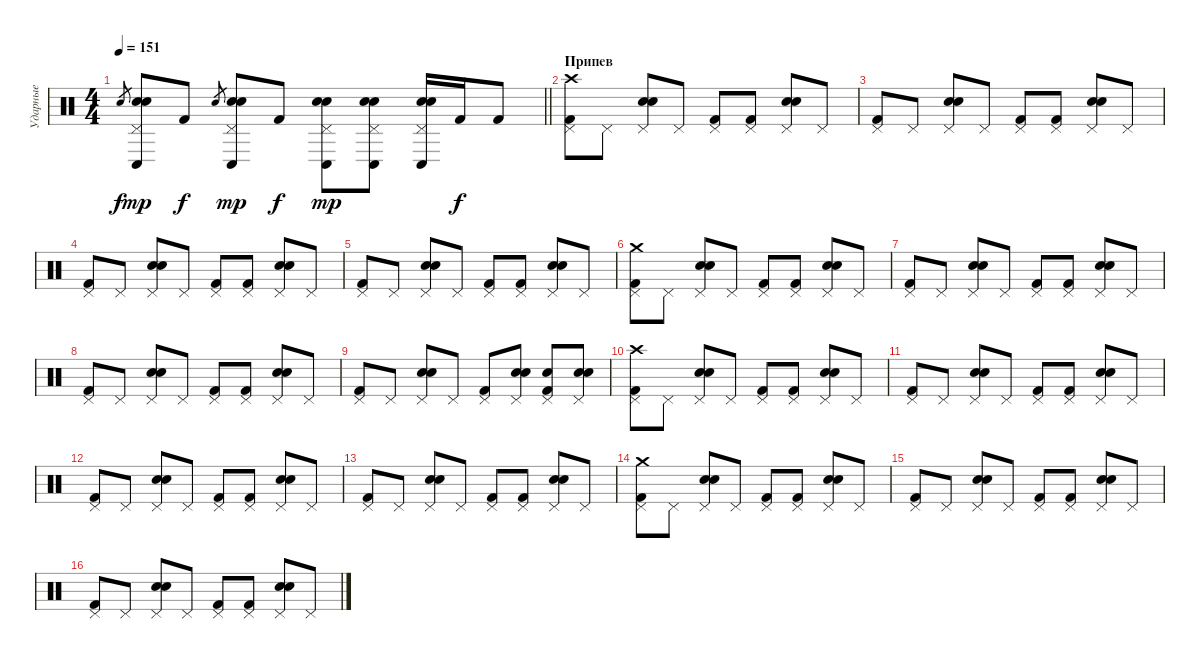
\track ("Ударные" "Ударные") {instrument percussion}
\staff {score}
\articulation defaults
\ts (4 4)
\tempo 151
\clef neutral
\barLineRight lightlight
\ks c "Electric Snare (hit)".8{gr dy f}
("Pedal Hi-Hat (hit)" "Conga low (hit)" "Electric Snare (hit)" "Snare (hit) 2").8{dy mp} "Kick (hit) 2".8{dy f} "Electric Snare (hit)".8{gr} ("Pedal Hi-Hat (hit)" "Conga low (hit)" "Electric Snare (hit)" "Snare (hit) 2").8{dy mp} "Kick (hit) 2".8{dy f} ("Pedal Hi-Hat (hit)" "Conga low (hit)" "Electric Snare (hit)" "Snare (hit) 2").8{dy mp} ("Pedal Hi-Hat (hit)" "Conga low (hit)" "Electric Snare (hit)" "Snare (hit) 2").8 ("Pedal Hi-Hat (hit)" "Conga low (hit)" "Electric Snare (hit)" "Snare (hit) 2").16 "Kick (hit) 2".16{dy f} "Kick (hit) 2".8 |
\section ("" "Припев")
("Pedal Hi-Hat (hit)" "Crash high (hit)" "Kick (hit) 2").8 "Pedal Hi-Hat (hit)".8 ("Pedal Hi-Hat (hit)" "Electric Snare (hit)" "Snare (hit) 2").8 "Pedal Hi-Hat (hit)".8 ("Pedal Hi-Hat (hit)" "Kick (hit) 2").8 ("Pedal Hi-Hat (hit)" "Kick (hit) 2").8 ("Pedal Hi-Hat (hit)" "Electric Snare (hit)" "Snare (hit) 2").8 "Pedal Hi-Hat (hit)".8 |
("Pedal Hi-Hat (hit)" "Kick (hit) 2").8 "Pedal Hi-Hat (hit)".8 ("Pedal Hi-Hat (hit)" "Electric Snare (hit)" "Snare (hit) 2").8 "Pedal Hi-Hat (hit)".8 ("Pedal Hi-Hat (hit)" "Kick (hit) 2").8 ("Pedal Hi-Hat (hit)" "Kick (hit) 2").8 ("Pedal Hi-Hat (hit)" "Electric Snare (hit)" "Snare (hit) 2").8 "Pedal Hi-Hat (hit)".8 |
("Pedal Hi-Hat (hit)" "Kick (hit) 2").8 "Pedal Hi-Hat (hit)".8 ("Pedal Hi-Hat (hit)" "Electric Snare (hit)" "Snare (hit) 2").8 "Pedal Hi-Hat (hit)".8 ("Pedal Hi-Hat (hit)" "Kick (hit) 2").8 ("Pedal Hi-Hat (hit)" "Kick (hit) 2").8 ("Pedal Hi-Hat (hit)" "Electric Snare (hit)" "Snare (hit) 2").8 "Pedal Hi-Hat (hit)".8 |
("Pedal Hi-Hat (hit)" "Kick (hit) 2").8 "Pedal Hi-Hat (hit)".8 ("Pedal Hi-Hat (hit)" "Electric Snare (hit)" "Snare (hit) 2").8 "Pedal Hi-Hat (hit)".8 ("Pedal Hi-Hat (hit)" "Kick (hit) 2").8 ("Pedal Hi-Hat (hit)" "Kick (hit) 2").8 ("Pedal Hi-Hat (hit)" "Electric Snare (hit)" "Snare (hit) 2").8 "Pedal Hi-Hat (hit)".8 |
("Pedal Hi-Hat (hit)" "Crash medium (hit)" "Kick (hit) 2").8 "Pedal Hi-Hat (hit)".8 ("Pedal Hi-Hat (hit)" "Electric Snare (hit)" "Snare (hit) 2").8 "Pedal Hi-Hat (hit)".8 ("Pedal Hi-Hat (hit)" "Kick (hit) 2").8 ("Pedal Hi-Hat (hit)" "Kick (hit) 2").8 ("Pedal Hi-Hat (hit)" "Electric Snare (hit)" "Snare (hit) 2").8 "Pedal Hi-Hat (hit)".8 |
("Pedal Hi-Hat (hit)" "Kick (hit) 2").8 "Pedal Hi-Hat (hit)".8 ("Pedal Hi-Hat (hit)" "Electric Snare (hit)" "Snare (hit) 2").8 "Pedal Hi-Hat (hit)".8 ("Pedal Hi-Hat (hit)" "Kick (hit) 2").8 ("Pedal Hi-Hat (hit)" "Kick (hit) 2").8 ("Pedal Hi-Hat (hit)" "Electric Snare (hit)" "Snare (hit) 2").8 "Pedal Hi-Hat (hit)".8 |
("Pedal Hi-Hat (hit)" "Kick (hit) 2").8 "Pedal Hi-Hat (hit)".8 ("Pedal Hi-Hat (hit)" "Electric Snare (hit)" "Snare (hit) 2").8 "Pedal Hi-Hat (hit)".8 ("Pedal Hi-Hat (hit)" "Kick (hit) 2").8 ("Pedal Hi-Hat (hit)" "Kick (hit) 2").8 ("Pedal Hi-Hat (hit)" "Electric Snare (hit)" "Snare (hit) 2").8 "Pedal Hi-Hat (hit)".8 |
("Pedal Hi-Hat (hit)" "Kick (hit) 2").8 "Pedal Hi-Hat (hit)".8 ("Pedal Hi-Hat (hit)" "Electric Snare (hit)" "Snare (hit) 2").8 "Pedal Hi-Hat (hit)".8 ("Pedal Hi-Hat (hit)" "Kick (hit) 2").8 ("Pedal Hi-Hat (hit)" "Electric Snare (hit)" "Snare (hit) 2").8 ("Pedal Hi-Hat (hit)" "Electric Snare (hit)" "Kick (hit) 2").8 ("Pedal Hi-Hat (hit)" "Electric Snare (hit)" "Snare (hit) 2").8 |
("Pedal Hi-Hat (hit)" "Crash high (hit)" "Kick (hit) 2").8 "Pedal Hi-Hat (hit)".8 ("Pedal Hi-Hat (hit)" "Electric Snare (hit)" "Snare (hit) 2").8 "Pedal Hi-Hat (hit)".8 ("Pedal Hi-Hat (hit)" "Kick (hit) 2").8 ("Pedal Hi-Hat (hit)" "Kick (hit) 2").8 ("Pedal Hi-Hat (hit)" "Electric Snare (hit)" "Snare (hit) 2").8 "Pedal Hi-Hat (hit)".8 |
("Pedal Hi-Hat (hit)" "Kick (hit) 2").8 "Pedal Hi-Hat (hit)".8 ("Pedal Hi-Hat (hit)" "Electric Snare (hit)" "Snare (hit) 2").8 "Pedal Hi-Hat (hit)".8 ("Pedal Hi-Hat (hit)" "Kick (hit) 2").8 ("Pedal Hi-Hat (hit)" "Kick (hit) 2").8 ("Pedal Hi-Hat (hit)" "Electric Snare (hit)" "Snare (hit) 2").8 "Pedal Hi-Hat (hit)".8 |
("Pedal Hi-Hat (hit)" "Kick (hit) 2").8 "Pedal Hi-Hat (hit)".8 ("Pedal Hi-Hat (hit)" "Electric Snare (hit)" "Snare (hit) 2").8 "Pedal Hi-Hat (hit)".8 ("Pedal Hi-Hat (hit)" "Kick (hit) 2").8 ("Pedal Hi-Hat (hit)" "Kick (hit) 2").8 ("Pedal Hi-Hat (hit)" "Electric Snare (hit)" "Snare (hit) 2").8 "Pedal Hi-Hat (hit)".8 |
("Pedal Hi-Hat (hit)" "Kick (hit) 2").8 "Pedal Hi-Hat (hit)".8 ("Pedal Hi-Hat (hit)" "Electric Snare (hit)" "Snare (hit) 2").8 "Pedal Hi-Hat (hit)".8 ("Pedal Hi-Hat (hit)" "Kick (hit) 2").8 ("Pedal Hi-Hat (hit)" "Kick (hit) 2").8 ("Pedal Hi-Hat (hit)" "Electric Snare (hit)" "Snare (hit) 2").8 "Pedal Hi-Hat (hit)".8 |
("Pedal Hi-Hat (hit)" "Crash medium (hit)" "Kick (hit) 2").8 "Pedal Hi-Hat (hit)".8 ("Pedal Hi-Hat (hit)" "Electric Snare (hit)" "Snare (hit) 2").8 "Pedal Hi-Hat (hit)".8 ("Pedal Hi-Hat (hit)" "Kick (hit) 2").8 ("Pedal Hi-Hat (hit)" "Kick (hit) 2").8 ("Pedal Hi-Hat (hit)" "Electric Snare (hit)" "Snare (hit) 2").8 "Pedal Hi-Hat (hit)".8 |
("Pedal Hi-Hat (hit)" "Kick (hit) 2").8 "Pedal Hi-Hat (hit)".8 ("Pedal Hi-Hat (hit)" "Electric Snare (hit)" "Snare (hit) 2").8 "Pedal Hi-Hat (hit)".8 ("Pedal Hi-Hat (hit)" "Kick (hit) 2").8 ("Pedal Hi-Hat (hit)" "Kick (hit) 2").8 ("Pedal Hi-Hat (hit)" "Electric Snare (hit)" "Snare (hit) 2").8 "Pedal Hi-Hat (hit)".8 |
("Pedal Hi-Hat (hit)" "Kick (hit) 2").8 "Pedal Hi-Hat (hit)".8 ("Pedal Hi-Hat (hit)" "Electric Snare (hit)" "Snare (hit) 2").8 "Pedal Hi-Hat (hit)".8 ("Pedal Hi-Hat (hit)" "Kick (hit) 2").8 ("Pedal Hi-Hat (hit)" "Kick (hit) 2").8 ("Pedal Hi-Hat (hit)" "Electric Snare (hit)" "Snare (hit) 2").8 "Pedal Hi-Hat (hit)".8
